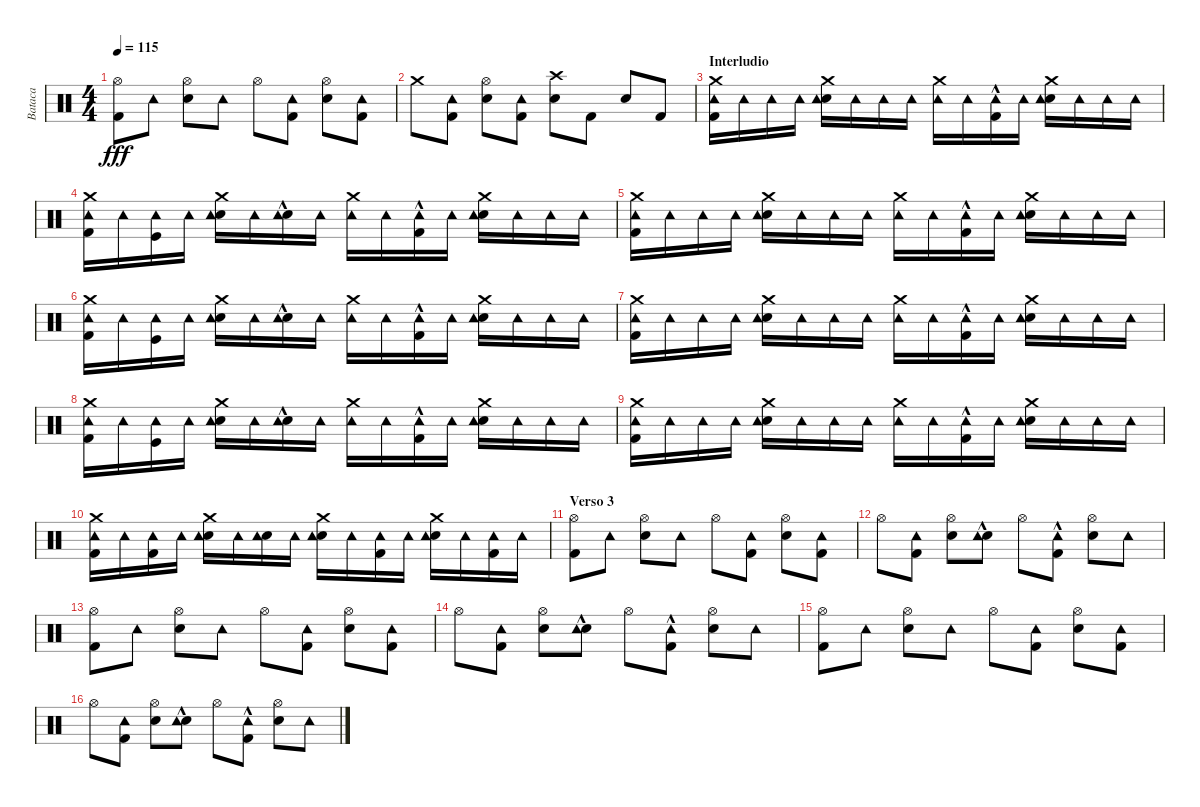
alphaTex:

\track ("Bataca" "Bataca") {instrument percussion}
\staff {score}
\articulation defaults
\ts (4 4)
\tempo 115
\clef neutral
\ks c
("Kick (hit) 2" "Hi-Hat (open)").8{dy fff} "Tambourine (hit)".8 ("Snare (hit) 2" "Hi-Hat (open)").8 "Tambourine (hit)".8 "Hi-Hat (open)".8 ("Kick (hit) 2" "Tambourine (hit)").8 ("Snare (hit) 2" "Hi-Hat (open)").8 ("Kick (hit) 2" "Tambourine (hit)").8 |
"Crash medium (hit)".8 ("Kick (hit) 2" "Tambourine (hit)").8 ("Snare (hit) 2" "Hi-Hat (open)").8 ("Kick (hit) 2" "Tambourine (hit)").8 ("Snare (hit) 2" "Crash high (hit)").8 "Kick (hit) 2".8 "Snare (hit) 2".8 "Kick (hit) 2".8 |
\section ("" "Interludio")
("Kick (hit) 2" "Tambourine (hit)" "Crash medium (hit)").16 "Tambourine (hit)".16 "Tambourine (hit)".16 "Tambourine (hit)".16 ("Snare (hit) 2" "Tambourine (hit)" "Crash medium (hit)").16 "Tambourine (hit)".16 "Tambourine (hit)".16 "Tambourine (hit)".16 ("Tambourine (hit)" "Crash medium (hit)").16 "Tambourine (hit)".16 ("Kick (hit) 2"{hac} "Tambourine (hit)").16 "Tambourine (hit)".16 ("Snare (hit) 2" "Tambourine (hit)" "Crash medium (hit)").16 "Tambourine (hit)".16 "Tambourine (hit)".16 "Tambourine (hit)".16 |
("Kick (hit) 2" "Tambourine (hit)" "Crash medium (hit)").16 "Tambourine (hit)".16 ("Kick (hit)" "Tambourine (hit)").16 "Tambourine (hit)".16 ("Snare (hit) 2" "Tambourine (hit)" "Crash medium (hit)").16 "Tambourine (hit)".16 ("Snare (hit) 2"{hac} "Tambourine (hit)").16 "Tambourine (hit)".16 ("Tambourine (hit)" "Crash medium (hit)").16 "Tambourine (hit)".16 ("Kick (hit) 2"{hac} "Tambourine (hit)").16 "Tambourine (hit)".16 ("Snare (hit) 2" "Tambourine (hit)" "Crash medium (hit)").16 "Tambourine (hit)".16 "Tambourine (hit)".16 "Tambourine (hit)".16 |
("Kick (hit) 2" "Tambourine (hit)" "Crash medium (hit)").16 "Tambourine (hit)".16 "Tambourine (hit)".16 "Tambourine (hit)".16 ("Snare (hit) 2" "Tambourine (hit)" "Crash medium (hit)").16 "Tambourine (hit)".16 "Tambourine (hit)".16 "Tambourine (hit)".16 ("Tambourine (hit)" "Crash medium (hit)").16 "Tambourine (hit)".16 ("Kick (hit) 2"{hac} "Tambourine (hit)").16 "Tambourine (hit)".16 ("Snare (hit) 2" "Tambourine (hit)" "Crash medium (hit)").16 "Tambourine (hit)".16 "Tambourine (hit)".16 "Tambourine (hit)".16 |
("Kick (hit) 2" "Tambourine (hit)" "Crash medium (hit)").16 "Tambourine (hit)".16 ("Kick (hit)" "Tambourine (hit)").16 "Tambourine (hit)".16 ("Snare (hit) 2" "Tambourine (hit)" "Crash medium (hit)").16 "Tambourine (hit)".16 ("Snare (hit) 2"{hac} "Tambourine (hit)").16 "Tambourine (hit)".16 ("Tambourine (hit)" "Crash medium (hit)").16 "Tambourine (hit)".16 ("Kick (hit) 2"{hac} "Tambourine (hit)").16 "Tambourine (hit)".16 ("Snare (hit) 2" "Tambourine (hit)" "Crash medium (hit)").16 "Tambourine (hit)".16 "Tambourine (hit)".16 "Tambourine (hit)".16 |
("Kick (hit) 2" "Tambourine (hit)" "Crash medium (hit)").16 "Tambourine (hit)".16 "Tambourine (hit)".16 "Tambourine (hit)".16 ("Snare (hit) 2" "Tambourine (hit)" "Crash medium (hit)").16 "Tambourine (hit)".16 "Tambourine (hit)".16 "Tambourine (hit)".16 ("Tambourine (hit)" "Crash medium (hit)").16 "Tambourine (hit)".16 ("Kick (hit) 2"{hac} "Tambourine (hit)").16 "Tambourine (hit)".16 ("Snare (hit) 2" "Tambourine (hit)" "Crash medium (hit)").16 "Tambourine (hit)".16 "Tambourine (hit)".16 "Tambourine (hit)".16 |
("Kick (hit) 2" "Tambourine (hit)" "Crash medium (hit)").16 "Tambourine (hit)".16 ("Kick (hit)" "Tambourine (hit)").16 "Tambourine (hit)".16 ("Snare (hit) 2" "Tambourine (hit)" "Crash medium (hit)").16 "Tambourine (hit)".16 ("Snare (hit) 2"{hac} "Tambourine (hit)").16 "Tambourine (hit)".16 ("Tambourine (hit)" "Crash medium (hit)").16 "Tambourine (hit)".16 ("Kick (hit) 2"{hac} "Tambourine (hit)").16 "Tambourine (hit)".16 ("Snare (hit) 2" "Tambourine (hit)" "Crash medium (hit)").16 "Tambourine (hit)".16 "Tambourine (hit)".16 "Tambourine (hit)".16 |
("Kick (hit) 2" "Tambourine (hit)" "Crash medium (hit)").16 "Tambourine (hit)".16 "Tambourine (hit)".16 "Tambourine (hit)".16 ("Snare (hit) 2" "Tambourine (hit)" "Crash medium (hit)").16 "Tambourine (hit)".16 "Tambourine (hit)".16 "Tambourine (hit)".16 ("Tambourine (hit)" "Crash medium (hit)").16 "Tambourine (hit)".16 ("Kick (hit) 2"{hac} "Tambourine (hit)").16 "Tambourine (hit)".16 ("Snare (hit) 2" "Tambourine (hit)" "Crash medium (hit)").16 "Tambourine (hit)".16 "Tambourine (hit)".16 "Tambourine (hit)".16 |
("Kick (hit) 2" "Tambourine (hit)" "Crash medium (hit)").16 "Tambourine (hit)".16 ("Kick (hit) 2" "Tambourine (hit)").16 "Tambourine (hit)".16 ("Snare (hit) 2" "Tambourine (hit)" "Crash medium (hit)").16 "Tambourine (hit)".16 ("Snare (hit) 2" "Tambourine (hit)").16 "Tambourine (hit)".16 ("Snare (hit) 2" "Tambourine (hit)" "Crash medium (hit)").16 "Tambourine (hit)".16 ("Kick (hit) 2" "Tambourine (hit)").16 "Tambourine (hit)".16 ("Snare (hit) 2" "Tambourine (hit)" "Crash medium (hit)").16 "Tambourine (hit)".16 ("Kick (hit) 2" "Tambourine (hit)").16 "Tambourine (hit)".16 |
\section ("" "Verso 3")
("Kick (hit) 2" "Hi-Hat (open)").8 "Tambourine (hit)".8 ("Snare (hit) 2" "Hi-Hat (open)").8 "Tambourine (hit)".8 "Hi-Hat (open)".8 ("Kick (hit) 2" "Tambourine (hit)").8 ("Snare (hit) 2" "Hi-Hat (open)").8 ("Kick (hit) 2" "Tambourine (hit)").8 |
"Hi-Hat (open)".8 ("Kick (hit) 2" "Tambourine (hit)").8 ("Snare (hit) 2" "Hi-Hat (open)").8 ("Snare (hit) 2"{hac} "Tambourine (hit)").8 "Hi-Hat (open)".8 ("Kick (hit) 2"{hac} "Tambourine (hit)").8 ("Snare (hit) 2" "Hi-Hat (open)").8 "Tambourine (hit)".8 |
("Kick (hit) 2" "Hi-Hat (open)").8 "Tambourine (hit)".8 ("Snare (hit) 2" "Hi-Hat (open)").8 "Tambourine (hit)".8 "Hi-Hat (open)".8 ("Kick (hit) 2" "Tambourine (hit)").8 ("Snare (hit) 2" "Hi-Hat (open)").8 ("Kick (hit) 2" "Tambourine (hit)").8 |
"Hi-Hat (open)".8 ("Kick (hit) 2" "Tambourine (hit)").8 ("Snare (hit) 2" "Hi-Hat (open)").8 ("Snare (hit) 2"{hac} "Tambourine (hit)").8 "Hi-Hat (open)".8 ("Kick (hit) 2"{hac} "Tambourine (hit)").8 ("Snare (hit) 2" "Hi-Hat (open)").8 "Tambourine (hit)".8 |
("Kick (hit) 2" "Hi-Hat (open)").8 "Tambourine (hit)".8 ("Snare (hit) 2" "Hi-Hat (open)").8 "Tambourine (hit)".8 "Hi-Hat (open)".8 ("Kick (hit) 2" "Tambourine (hit)").8 ("Snare (hit) 2" "Hi-Hat (open)").8 ("Kick (hit) 2" "Tambourine (hit)").8 |
"Hi-Hat (open)".8 ("Kick (hit) 2" "Tambourine (hit)").8 ("Snare (hit) 2" "Hi-Hat (open)").8 ("Snare (hit) 2"{hac} "Tambourine (hit)").8 "Hi-Hat (open)".8 ("Kick (hit) 2"{hac} "Tambourine (hit)").8 ("Snare (hit) 2" "Hi-Hat (open)").8 "Tambourine (hit)".8
